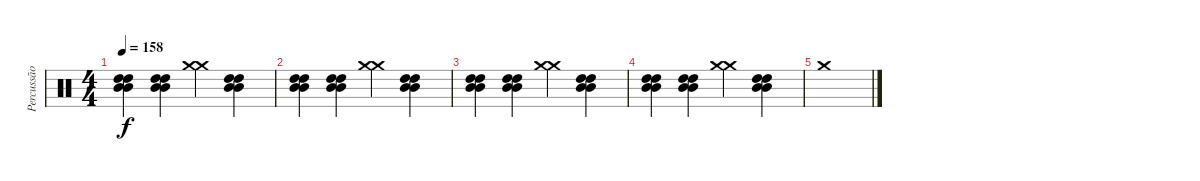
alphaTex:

\track ("Percussão" "Percussão") {instrument percussion}
\staff {score}
\articulation defaults
\ts (4 4)
\tempo 158
\clef neutral
\ks c
("High Tom (hit)" "High Tom (hit)" "Mid Tom (hit)" "Mid Tom (hit)").4{dy f} ("High Tom (hit)" "High Tom (hit)" "Mid Tom (hit)" "Mid Tom (hit)").4 ("Crash medium (hit)" "Crash medium (hit)").4 ("High Tom (hit)" "High Tom (hit)" "Mid Tom (hit)" "Mid Tom (hit)").4 |
("High Tom (hit)" "High Tom (hit)" "Mid Tom (hit)" "Mid Tom (hit)").4 ("High Tom (hit)" "High Tom (hit)" "Mid Tom (hit)" "Mid Tom (hit)").4 ("Crash medium (hit)" "Crash medium (hit)").4 ("High Tom (hit)" "High Tom (hit)" "Mid Tom (hit)" "Mid Tom (hit)").4 |
("High Tom (hit)" "High Tom (hit)" "Mid Tom (hit)" "Mid Tom (hit)").4 ("High Tom (hit)" "High Tom (hit)" "Mid Tom (hit)" "Mid Tom (hit)").4 ("Crash medium (hit)" "Crash medium (hit)").4 ("High Tom (hit)" "High Tom (hit)" "Mid Tom (hit)" "Mid Tom (hit)").4 |
("High Tom (hit)" "High Tom (hit)" "Mid Tom (hit)" "Mid Tom (hit)").4 ("High Tom (hit)" "High Tom (hit)" "Mid Tom (hit)" "Mid Tom (hit)").4 ("Crash medium (hit)" "Crash medium (hit)").4 ("High Tom (hit)" "High Tom (hit)" "Mid Tom (hit)" "Mid Tom (hit)").4 |
"Crash medium (hit)".1
